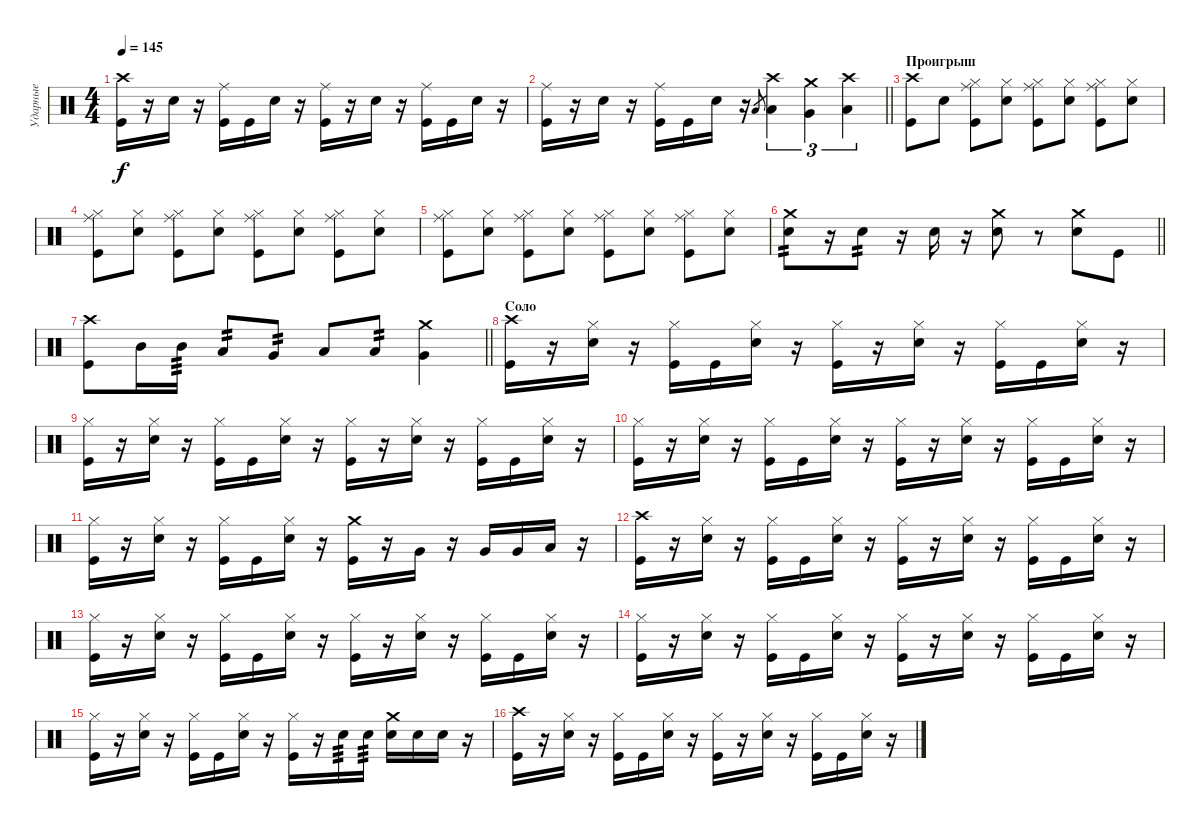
\track ("Ударные" "Ударные") {instrument percussion}
\staff {score}
\articulation defaults
\ts (4 4)
\tempo 145
\clef neutral
\ks c
("Crash high (hit)" "Kick (hit)").16{dy f} r.16 "Snare (hit) 2".16 r.16 ("Ride (middle)" "Kick (hit)").16 "Kick (hit)".16 "Snare (hit) 2".16 r.16 ("Ride (middle)" "Kick (hit)").16 r.16 "Snare (hit) 2".16 r.16 ("Ride (middle)" "Kick (hit)").16 "Kick (hit)".16 "Snare (hit) 2".16 r.16 |
\barLineRight lightlight
("Ride (middle)" "Kick (hit)").16 r.16 "Snare (hit) 2".16 r.16 ("Ride (middle)" "Kick (hit)").16 "Kick (hit)".16 "Snare (hit) 2".16 r.16 "Low Tom (hit)".8{gr} ("Crash high (hit)" "Low Tom (hit)").4{tu (3 2)} ("Crash medium (hit)" "Very Low Tom (hit)").4{tu (3 2)} ("Crash high (hit)" "Low Floor Tom (hit)").4{tu (3 2)} |
\section ("" "Проигрыш")
("Crash high (hit)" "Kick (hit)").8 "Snare (hit) 2".8 ("Hi-Hat (closed)" "Ride (middle)" "Kick (hit)").8 ("Hi-Hat (closed)" "Snare (hit) 2").8 ("Hi-Hat (closed)" "Ride (middle)" "Kick (hit)").8 ("Hi-Hat (closed)" "Snare (hit) 2").8 ("Hi-Hat (closed)" "Ride (middle)" "Kick (hit)").8 ("Hi-Hat (closed)" "Snare (hit) 2").8 |
("Hi-Hat (closed)" "Ride (middle)" "Kick (hit)").8 ("Hi-Hat (closed)" "Snare (hit) 2").8 ("Hi-Hat (closed)" "Ride (middle)" "Kick (hit)").8 ("Hi-Hat (closed)" "Snare (hit) 2").8 ("Hi-Hat (closed)" "Ride (middle)" "Kick (hit)").8 ("Hi-Hat (closed)" "Snare (hit) 2").8 ("Hi-Hat (closed)" "Ride (middle)" "Kick (hit)").8 ("Hi-Hat (closed)" "Snare (hit) 2").8 |
("Hi-Hat (closed)" "Ride (middle)" "Kick (hit)").8 ("Hi-Hat (closed)" "Snare (hit) 2").8 ("Hi-Hat (closed)" "Ride (middle)" "Kick (hit)").8 ("Hi-Hat (closed)" "Snare (hit) 2").8 ("Hi-Hat (closed)" "Ride (middle)" "Kick (hit)").8 ("Hi-Hat (closed)" "Snare (hit) 2").8 ("Hi-Hat (closed)" "Ride (middle)" "Kick (hit)").8 ("Hi-Hat (closed)" "Snare (hit) 2").8 |
\barLineRight lightlight
("Crash medium (hit)" "Snare (hit) 2").8{tp 2} r.16 "Snare (hit) 2".8{tp 2} r.16 "Snare (hit) 2".16 r.16 ("Crash medium (hit)" "Snare (hit) 2").8 r.8 ("Crash medium (hit)" "Snare (hit) 2").8 "Kick (hit)".8 |
\barLineRight lightlight
("Crash high (hit)" "Kick (hit)").8 "Mid Tom (hit)".16 "Mid Tom (hit)".16{tp 3} "Low Tom (hit)".8{tp 2} "Very Low Tom (hit)".8{tp 2} "Low Floor Tom (hit)".8 "Low Tom (hit)".8{tp 2} ("Crash medium (hit)" "Very Low Tom (hit)").4 |
\section ("" "Соло")
("Crash high (hit)" "Kick (hit)").16 r.16 ("Hi-Hat (closed)" "Electric Snare (hit)").16 r.16 ("Hi-Hat (closed)" "Kick (hit)").16 "Kick (hit)".16 ("Hi-Hat (closed)" "Electric Snare (hit)").16 r.16 ("Hi-Hat (closed)" "Kick (hit)").16 r.16 ("Hi-Hat (closed)" "Electric Snare (hit)").16 r.16 ("Hi-Hat (closed)" "Kick (hit)").16 "Kick (hit)".16 ("Hi-Hat (closed)" "Electric Snare (hit)").16 r.16 |
("Hi-Hat (closed)" "Kick (hit)").16 r.16 ("Hi-Hat (closed)" "Electric Snare (hit)").16 r.16 ("Hi-Hat (closed)" "Kick (hit)").16 "Kick (hit)".16 ("Hi-Hat (closed)" "Electric Snare (hit)").16 r.16 ("Hi-Hat (closed)" "Kick (hit)").16 r.16 ("Hi-Hat (closed)" "Electric Snare (hit)").16 r.16 ("Hi-Hat (closed)" "Kick (hit)").16 "Kick (hit)".16 ("Hi-Hat (closed)" "Electric Snare (hit)").16 r.16 |
("Hi-Hat (closed)" "Kick (hit)").16 r.16 ("Hi-Hat (closed)" "Electric Snare (hit)").16 r.16 ("Hi-Hat (closed)" "Kick (hit)").16 "Kick (hit)".16 ("Hi-Hat (closed)" "Electric Snare (hit)").16 r.16 ("Hi-Hat (closed)" "Kick (hit)").16 r.16 ("Hi-Hat (closed)" "Electric Snare (hit)").16 r.16 ("Hi-Hat (closed)" "Kick (hit)").16 "Kick (hit)".16 ("Hi-Hat (closed)" "Electric Snare (hit)").16 r.16 |
("Hi-Hat (closed)" "Kick (hit)").16 r.16 ("Hi-Hat (closed)" "Electric Snare (hit)").16 r.16 ("Hi-Hat (closed)" "Kick (hit)").16 "Kick (hit)".16 ("Hi-Hat (closed)" "Electric Snare (hit)").16 r.16 ("Crash medium (hit)" "Kick (hit)").16 r.16 "Very Low Tom (hit)".16 r.16 "Very Low Tom (hit)".16 "Very Low Tom (hit)".16 "Low Floor Tom (hit)".16 r.16 |
("Crash high (hit)" "Kick (hit)").16 r.16 ("Hi-Hat (closed)" "Electric Snare (hit)").16 r.16 ("Hi-Hat (closed)" "Kick (hit)").16 "Kick (hit)".16 ("Hi-Hat (closed)" "Electric Snare (hit)").16 r.16 ("Hi-Hat (closed)" "Kick (hit)").16 r.16 ("Hi-Hat (closed)" "Electric Snare (hit)").16 r.16 ("Hi-Hat (closed)" "Kick (hit)").16 "Kick (hit)".16 ("Hi-Hat (closed)" "Electric Snare (hit)").16 r.16 |
("Hi-Hat (closed)" "Kick (hit)").16 r.16 ("Hi-Hat (closed)" "Electric Snare (hit)").16 r.16 ("Hi-Hat (closed)" "Kick (hit)").16 "Kick (hit)".16 ("Hi-Hat (closed)" "Electric Snare (hit)").16 r.16 ("Hi-Hat (closed)" "Kick (hit)").16 r.16 ("Hi-Hat (closed)" "Electric Snare (hit)").16 r.16 ("Hi-Hat (closed)" "Kick (hit)").16 "Kick (hit)".16 ("Hi-Hat (closed)" "Electric Snare (hit)").16 r.16 |
("Hi-Hat (closed)" "Kick (hit)").16 r.16 ("Hi-Hat (closed)" "Electric Snare (hit)").16 r.16 ("Hi-Hat (closed)" "Kick (hit)").16 "Kick (hit)".16 ("Hi-Hat (closed)" "Electric Snare (hit)").16 r.16 ("Hi-Hat (closed)" "Kick (hit)").16 r.16 ("Hi-Hat (closed)" "Electric Snare (hit)").16 r.16 ("Hi-Hat (closed)" "Kick (hit)").16 "Kick (hit)".16 ("Hi-Hat (closed)" "Electric Snare (hit)").16 r.16 |
("Hi-Hat (closed)" "Kick (hit)").16 r.16 ("Hi-Hat (closed)" "Electric Snare (hit)").16 r.16 ("Hi-Hat (closed)" "Kick (hit)").16 "Kick (hit)".16 ("Hi-Hat (closed)" "Electric Snare (hit)").16 r.16 ("Hi-Hat (closed)" "Kick (hit)").16 r.16 "Electric Snare (hit)".16{tp 3} "Electric Snare (hit)".16{tp 3} ("Crash medium (hit)" "Electric Snare (hit)").16 "Electric Snare (hit)".16 "Electric Snare (hit)".16 r.16 |
("Crash high (hit)" "Kick (hit)").16 r.16 ("Hi-Hat (closed)" "Electric Snare (hit)").16 r.16 ("Hi-Hat (closed)" "Kick (hit)").16 "Kick (hit)".16 ("Hi-Hat (closed)" "Electric Snare (hit)").16 r.16 ("Hi-Hat (closed)" "Kick (hit)").16 r.16 ("Hi-Hat (closed)" "Electric Snare (hit)").16 r.16 ("Hi-Hat (closed)" "Kick (hit)").16 "Kick (hit)".16 ("Hi-Hat (closed)" "Electric Snare (hit)").16 r.16
